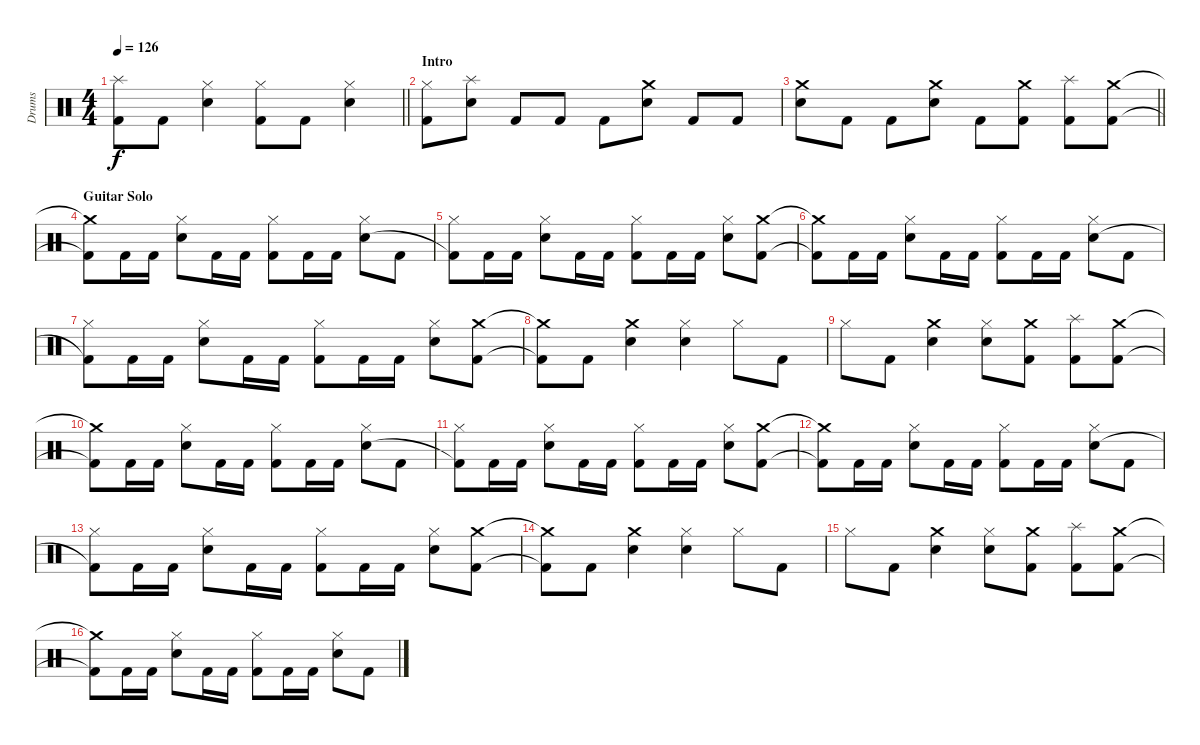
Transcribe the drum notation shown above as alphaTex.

\track ("Drums" "Drums") {instrument percussion}
\staff {score}
\articulation defaults
\ts (4 4)
\tempo 126
\clef neutral
\barLineRight lightlight
\ks c
("Splash (hit)"{t} "Kick (hit) 2"{t}).8{dy f} "Kick (hit) 2".8 ("Hi-Hat (closed)" "Snare (hit) 2").4 ("Hi-Hat (closed)" "Kick (hit) 2").8 "Kick (hit) 2".8 ("Hi-Hat (closed)" "Snare (hit) 2").4 |
\section ("" "Intro")
("Hi-Hat (closed)" "Kick (hit) 2").8 ("Splash (hit)" "Snare (hit) 2").8 "Kick (hit) 2".8 "Kick (hit) 2".8 "Kick (hit) 2".8 ("Crash medium (hit)" "Snare (hit) 2").8 "Kick (hit) 2".8 "Kick (hit) 2".8 |
\barLineRight lightlight
("Crash medium (hit)" "Snare (hit) 2").8 "Kick (hit) 2".8 "Kick (hit) 2".8 ("Crash medium (hit)" "Snare (hit) 2").8 "Kick (hit) 2".8 ("Crash medium (hit)" "Kick (hit) 2").8 ("Splash (hit)" "Kick (hit) 2").8 ("Crash medium (hit)" "Kick (hit) 2").8 |
\section ("" "Guitar Solo")
("Crash medium (hit)"{t} "Kick (hit) 2"{t}).8 "Kick (hit) 2".16 "Kick (hit) 2".16 ("Hi-Hat (closed)" "Snare (hit) 2").8 "Kick (hit) 2".16 "Kick (hit) 2".16 ("Hi-Hat (closed)" "Kick (hit) 2").8 "Kick (hit) 2".16 "Kick (hit) 2".16 ("Hi-Hat (closed)" "Snare (hit) 2").8 "Kick (hit) 2".8 |
("Hi-Hat (closed)" "Kick (hit) 2"{t}).8 "Kick (hit) 2".16 "Kick (hit) 2".16 ("Hi-Hat (closed)" "Snare (hit) 2").8 "Kick (hit) 2".16 "Kick (hit) 2".16 ("Hi-Hat (closed)" "Kick (hit) 2").8 "Kick (hit) 2".16 "Kick (hit) 2".16 ("Hi-Hat (closed)" "Snare (hit) 2").8 ("Crash medium (hit)" "Kick (hit) 2").8 |
("Crash medium (hit)"{t} "Kick (hit) 2"{t}).8 "Kick (hit) 2".16 "Kick (hit) 2".16 ("Hi-Hat (closed)" "Snare (hit) 2").8 "Kick (hit) 2".16 "Kick (hit) 2".16 ("Hi-Hat (closed)" "Kick (hit) 2").8 "Kick (hit) 2".16 "Kick (hit) 2".16 ("Hi-Hat (closed)" "Snare (hit) 2").8 "Kick (hit) 2".8 |
("Hi-Hat (closed)" "Kick (hit) 2"{t}).8 "Kick (hit) 2".16 "Kick (hit) 2".16 ("Hi-Hat (closed)" "Snare (hit) 2").8 "Kick (hit) 2".16 "Kick (hit) 2".16 ("Hi-Hat (closed)" "Kick (hit) 2").8 "Kick (hit) 2".16 "Kick (hit) 2".16 ("Hi-Hat (closed)" "Snare (hit) 2").8 ("Crash medium (hit)" "Kick (hit) 2").8 |
("Crash medium (hit)"{t} "Kick (hit) 2"{t}).8 "Kick (hit) 2".8 ("Crash medium (hit)" "Snare (hit) 2").4 ("Hi-Hat (closed)" "Snare (hit) 2").4 "Hi-Hat (closed)".8 "Kick (hit) 2".8 |
"Hi-Hat (closed)".8 "Kick (hit) 2".8 ("Crash medium (hit)" "Snare (hit) 2").4 ("Hi-Hat (closed)" "Snare (hit) 2").8 ("Crash medium (hit)" "Kick (hit) 2").8 ("Splash (hit)" "Kick (hit) 2").8 ("Crash medium (hit)" "Kick (hit) 2").8 |
("Crash medium (hit)"{t} "Kick (hit) 2"{t}).8 "Kick (hit) 2".16 "Kick (hit) 2".16 ("Hi-Hat (closed)" "Snare (hit) 2").8 "Kick (hit) 2".16 "Kick (hit) 2".16 ("Hi-Hat (closed)" "Kick (hit) 2").8 "Kick (hit) 2".16 "Kick (hit) 2".16 ("Hi-Hat (closed)" "Snare (hit) 2").8 "Kick (hit) 2".8 |
("Hi-Hat (closed)" "Kick (hit) 2"{t}).8 "Kick (hit) 2".16 "Kick (hit) 2".16 ("Hi-Hat (closed)" "Snare (hit) 2").8 "Kick (hit) 2".16 "Kick (hit) 2".16 ("Hi-Hat (closed)" "Kick (hit) 2").8 "Kick (hit) 2".16 "Kick (hit) 2".16 ("Hi-Hat (closed)" "Snare (hit) 2").8 ("Crash medium (hit)" "Kick (hit) 2").8 |
("Crash medium (hit)"{t} "Kick (hit) 2"{t}).8 "Kick (hit) 2".16 "Kick (hit) 2".16 ("Hi-Hat (closed)" "Snare (hit) 2").8 "Kick (hit) 2".16 "Kick (hit) 2".16 ("Hi-Hat (closed)" "Kick (hit) 2").8 "Kick (hit) 2".16 "Kick (hit) 2".16 ("Hi-Hat (closed)" "Snare (hit) 2").8 "Kick (hit) 2".8 |
("Hi-Hat (closed)" "Kick (hit) 2"{t}).8 "Kick (hit) 2".16 "Kick (hit) 2".16 ("Hi-Hat (closed)" "Snare (hit) 2").8 "Kick (hit) 2".16 "Kick (hit) 2".16 ("Hi-Hat (closed)" "Kick (hit) 2").8 "Kick (hit) 2".16 "Kick (hit) 2".16 ("Hi-Hat (closed)" "Snare (hit) 2").8 ("Crash medium (hit)" "Kick (hit) 2").8 |
("Crash medium (hit)"{t} "Kick (hit) 2"{t}).8 "Kick (hit) 2".8 ("Crash medium (hit)" "Snare (hit) 2").4 ("Hi-Hat (closed)" "Snare (hit) 2").4 "Hi-Hat (closed)".8 "Kick (hit) 2".8 |
"Hi-Hat (closed)".8 "Kick (hit) 2".8 ("Crash medium (hit)" "Snare (hit) 2").4 ("Hi-Hat (closed)" "Snare (hit) 2").8 ("Crash medium (hit)" "Kick (hit) 2").8 ("Splash (hit)" "Kick (hit) 2").8 ("Crash medium (hit)" "Kick (hit) 2").8 |
("Crash medium (hit)"{t} "Kick (hit) 2"{t}).8 "Kick (hit) 2".16 "Kick (hit) 2".16 ("Hi-Hat (closed)" "Snare (hit) 2").8 "Kick (hit) 2".16 "Kick (hit) 2".16 ("Hi-Hat (closed)" "Kick (hit) 2").8 "Kick (hit) 2".16 "Kick (hit) 2".16 ("Hi-Hat (closed)" "Snare (hit) 2").8 "Kick (hit) 2".8
